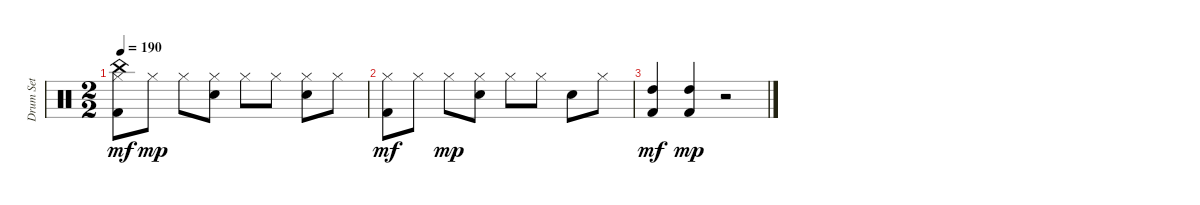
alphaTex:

\track ("Drum Set" "Drum Set") {instrument percussion}
\staff {score}
\articulation defaults
\ts (2 2)
\tempo 190
\clef neutral
\ks c
("Kick (hit) 2" "Hi-Hat (closed)" "China (hit)").8{dy mf} "Hi-Hat (closed)".8{dy mp} "Hi-Hat (closed)".8 ("Snare (hit) 2" "Hi-Hat (closed)").8 "Hi-Hat (closed)".8 "Hi-Hat (closed)".8 ("Snare (hit) 2" "Hi-Hat (closed)").8 "Hi-Hat (closed)".8 |
("Kick (hit) 2" "Hi-Hat (closed)").8{dy mf} "Hi-Hat (closed)".8 "Hi-Hat (closed)".8{dy mp} ("Snare (hit) 2" "Hi-Hat (closed)").8 "Hi-Hat (closed)".8 "Hi-Hat (closed)".8 "Snare (hit) 2".8 "Hi-Hat (closed)".8 |
("High Tom (hit)" "Kick (hit) 2").4{dy mf} ("Kick (hit) 2" "High Tom (hit)").4{dy mp} r.2
